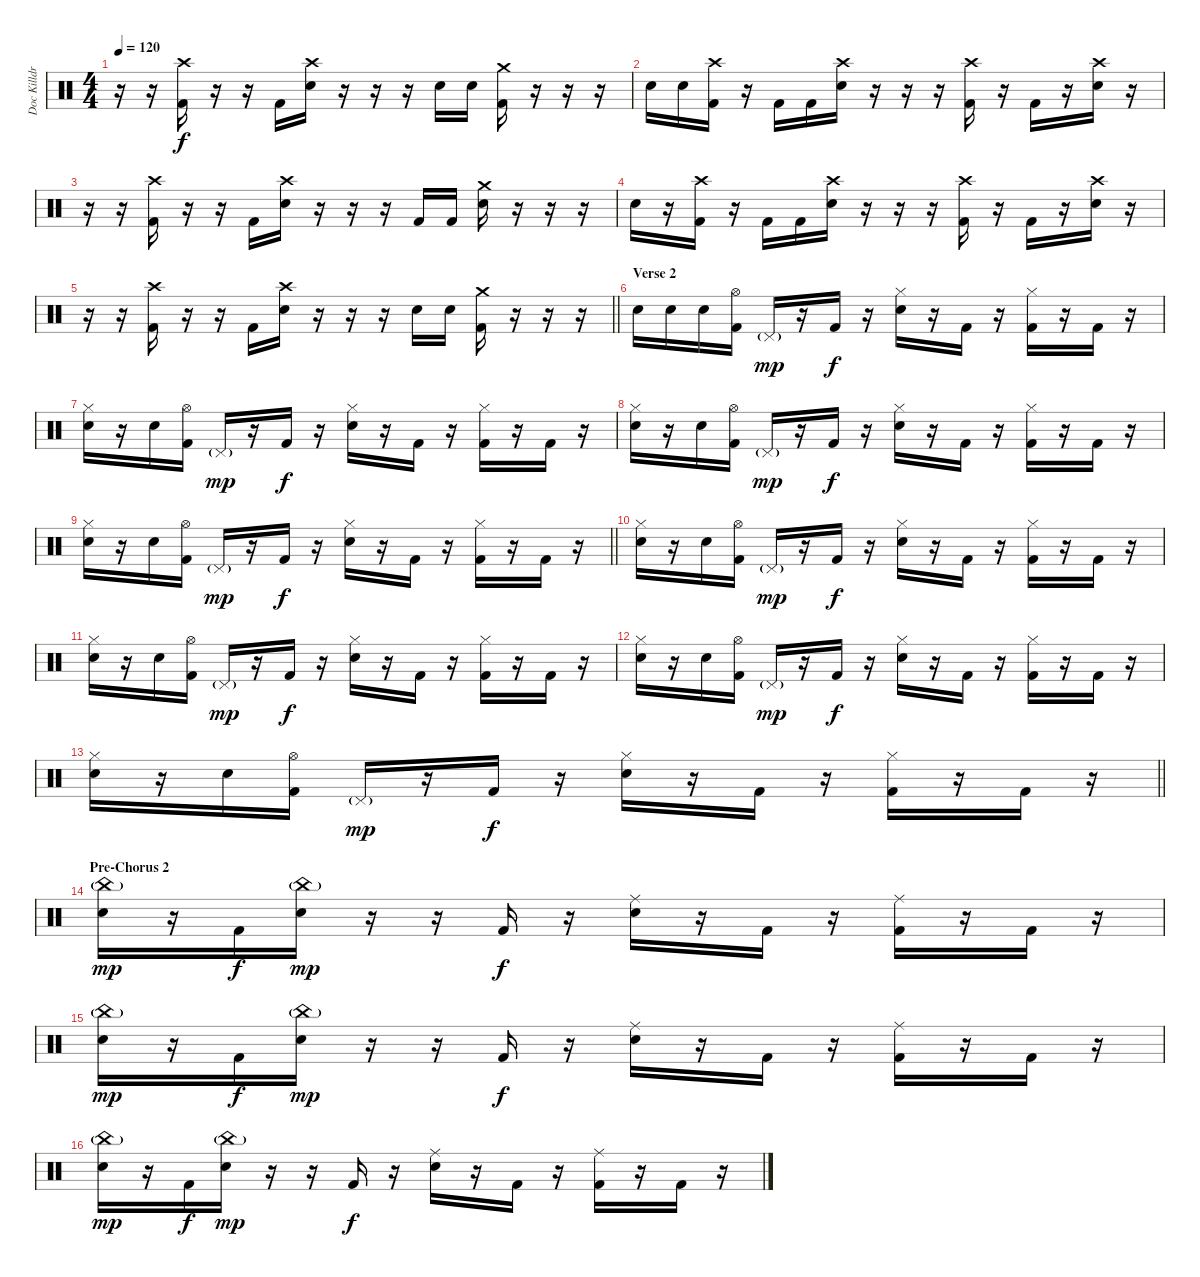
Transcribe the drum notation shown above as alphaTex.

\track ("Doc Killdrums (What else?)" "Doc Killdr") {instrument percussion}
\staff {score}
\articulation defaults
\ts (4 4)
\tempo 120
\clef neutral
\ks c
r.16{dy f} r.16 ("Kick (hit) 2" "Crash high (hit)").16 r.16 r.16 "Kick (hit) 2".16 ("Snare (hit) 2" "Crash high (hit)").16 r.16 r.16 r.16 "Snare (hit) 2".16 "Snare (hit) 2".16 ("Kick (hit) 2" "Crash medium (hit)").16 r.16 r.16 r.16 |
"Snare (hit) 2".16 "Snare (hit) 2".16 ("Kick (hit) 2" "Crash high (hit)").16 r.16 "Kick (hit) 2".16 "Kick (hit) 2".16 ("Snare (hit) 2" "Crash high (hit)").16 r.16 r.16 r.16 ("Kick (hit) 2" "Crash high (hit)").16 r.16 "Kick (hit) 2".16 r.16 ("Snare (hit) 2" "Crash high (hit)").16 r.16 |
r.16 r.16 ("Kick (hit) 2" "Crash high (hit)").16 r.16 r.16 "Kick (hit) 2".16 ("Snare (hit) 2" "Crash high (hit)").16 r.16 r.16 r.16 "Kick (hit) 2".16 "Kick (hit) 2".16 ("Snare (hit) 2" "Crash medium (hit)").16 r.16 r.16 r.16 |
"Snare (hit) 2".16 r.16 ("Kick (hit) 2" "Crash high (hit)").16 r.16 "Kick (hit) 2".16 "Kick (hit) 2".16 ("Snare (hit) 2" "Crash high (hit)").16 r.16 r.16 r.16 ("Kick (hit) 2" "Crash high (hit)").16 r.16 "Kick (hit) 2".16 r.16 ("Snare (hit) 2" "Crash high (hit)").16 r.16 |
\barLineRight lightlight
r.16 r.16 ("Kick (hit) 2" "Crash high (hit)").16 r.16 r.16 "Kick (hit) 2".16 ("Snare (hit) 2" "Crash high (hit)").16 r.16 r.16 r.16 "Snare (hit) 2".16 "Snare (hit) 2".16 ("Kick (hit) 2" "Crash medium (hit)").16 r.16 r.16 r.16 |
\section ("" "Verse 2")
"Snare (hit) 2".16 "Snare (hit) 2".16 "Snare (hit) 2".16 ("Kick (hit) 2" "Hi-Hat (open)").16 "Pedal Hi-Hat (hit)"{g}.16{dy mp} r.16 "Kick (hit) 2".16{dy f} r.16 ("Snare (hit) 2" "Hi-Hat (closed)").16 r.16 "Kick (hit) 2".16 r.16 ("Kick (hit) 2" "Hi-Hat (closed)").16 r.16 "Kick (hit) 2".16 r.16 |
("Snare (hit) 2" "Hi-Hat (closed)").16 r.16 "Snare (hit) 2".16 ("Kick (hit) 2" "Hi-Hat (open)").16 "Pedal Hi-Hat (hit)"{g}.16{dy mp} r.16 "Kick (hit) 2".16{dy f} r.16 ("Snare (hit) 2" "Hi-Hat (closed)").16 r.16 "Kick (hit) 2".16 r.16 ("Kick (hit) 2" "Hi-Hat (closed)").16 r.16 "Kick (hit) 2".16 r.16 |
("Snare (hit) 2" "Hi-Hat (closed)").16 r.16 "Snare (hit) 2".16 ("Kick (hit) 2" "Hi-Hat (open)").16 "Pedal Hi-Hat (hit)"{g}.16{dy mp} r.16 "Kick (hit) 2".16{dy f} r.16 ("Snare (hit) 2" "Hi-Hat (closed)").16 r.16 "Kick (hit) 2".16 r.16 ("Kick (hit) 2" "Hi-Hat (closed)").16 r.16 "Kick (hit) 2".16 r.16 |
\barLineRight lightlight
("Snare (hit) 2" "Hi-Hat (closed)").16 r.16 "Snare (hit) 2".16 ("Kick (hit) 2" "Hi-Hat (open)").16 "Pedal Hi-Hat (hit)"{g}.16{dy mp} r.16 "Kick (hit) 2".16{dy f} r.16 ("Snare (hit) 2" "Hi-Hat (closed)").16 r.16 "Kick (hit) 2".16 r.16 ("Kick (hit) 2" "Hi-Hat (closed)").16 r.16 "Kick (hit) 2".16 r.16 |
("Snare (hit) 2" "Hi-Hat (closed)").16 r.16 "Snare (hit) 2".16 ("Kick (hit) 2" "Hi-Hat (open)").16 "Pedal Hi-Hat (hit)"{g}.16{dy mp} r.16 "Kick (hit) 2".16{dy f} r.16 ("Snare (hit) 2" "Hi-Hat (closed)").16 r.16 "Kick (hit) 2".16 r.16 ("Kick (hit) 2" "Hi-Hat (closed)").16 r.16 "Kick (hit) 2".16 r.16 |
("Snare (hit) 2" "Hi-Hat (closed)").16 r.16 "Snare (hit) 2".16 ("Kick (hit) 2" "Hi-Hat (open)").16 "Pedal Hi-Hat (hit)"{g}.16{dy mp} r.16 "Kick (hit) 2".16{dy f} r.16 ("Snare (hit) 2" "Hi-Hat (closed)").16 r.16 "Kick (hit) 2".16 r.16 ("Kick (hit) 2" "Hi-Hat (closed)").16 r.16 "Kick (hit) 2".16 r.16 |
("Snare (hit) 2" "Hi-Hat (closed)").16 r.16 "Snare (hit) 2".16 ("Kick (hit) 2" "Hi-Hat (open)").16 "Pedal Hi-Hat (hit)"{g}.16{dy mp} r.16 "Kick (hit) 2".16{dy f} r.16 ("Snare (hit) 2" "Hi-Hat (closed)").16 r.16 "Kick (hit) 2".16 r.16 ("Kick (hit) 2" "Hi-Hat (closed)").16 r.16 "Kick (hit) 2".16 r.16 |
\barLineRight lightlight
("Snare (hit) 2" "Hi-Hat (closed)").16 r.16 "Snare (hit) 2".16 ("Kick (hit) 2" "Hi-Hat (open)").16 "Pedal Hi-Hat (hit)"{g}.16{dy mp} r.16 "Kick (hit) 2".16{dy f} r.16 ("Snare (hit) 2" "Hi-Hat (closed)").16 r.16 "Kick (hit) 2".16 r.16 ("Kick (hit) 2" "Hi-Hat (closed)").16 r.16 "Kick (hit) 2".16 r.16 |
\section ("" "Pre-Chorus 2")
("Snare (hit) 2" "China (hit)"{g}).16{dy mp} r.16 "Kick (hit) 2".16{dy f} ("Snare (hit) 2" "China (hit)"{g}).16{dy mp} r.16 r.16 "Kick (hit) 2".16{dy f} r.16 ("Snare (hit) 2" "Ride (middle)").16 r.16 "Kick (hit) 2".16 r.16 ("Kick (hit) 2" "Ride (middle)").16 r.16 "Kick (hit) 2".16 r.16 |
("Snare (hit) 2" "China (hit)"{g}).16{dy mp} r.16 "Kick (hit) 2".16{dy f} ("Snare (hit) 2" "China (hit)"{g}).16{dy mp} r.16 r.16 "Kick (hit) 2".16{dy f} r.16 ("Snare (hit) 2" "Ride (middle)").16 r.16 "Kick (hit) 2".16 r.16 ("Kick (hit) 2" "Ride (middle)").16 r.16 "Kick (hit) 2".16 r.16 |
("Snare (hit) 2" "China (hit)"{g}).16{dy mp} r.16 "Kick (hit) 2".16{dy f} ("Snare (hit) 2" "China (hit)"{g}).16{dy mp} r.16 r.16 "Kick (hit) 2".16{dy f} r.16 ("Snare (hit) 2" "Ride (middle)").16 r.16 "Kick (hit) 2".16 r.16 ("Kick (hit) 2" "Ride (middle)").16 r.16 "Kick (hit) 2".16 r.16
